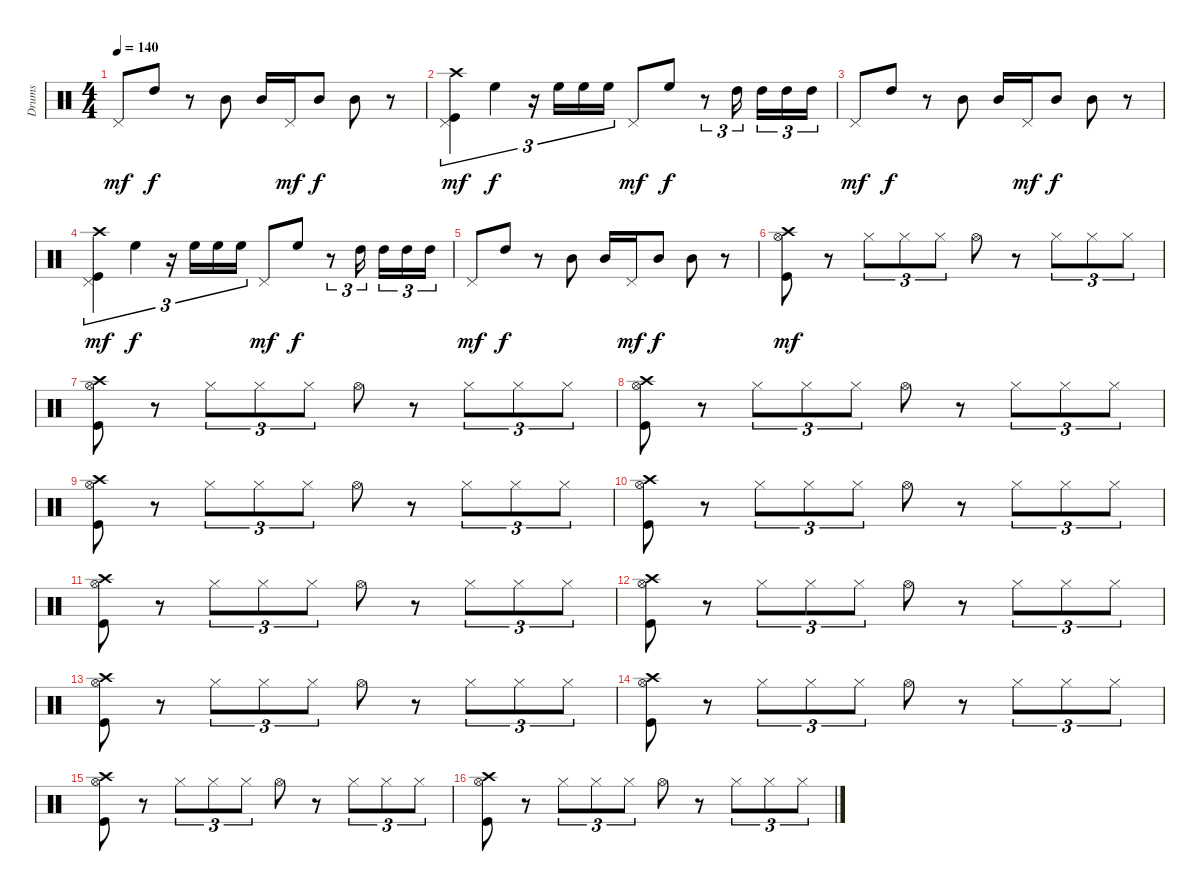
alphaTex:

\track ("Drums" "Drums") {instrument percussion}
\staff {score}
\articulation defaults
\ts (4 4)
\tempo 140
\clef neutral
\ks c "Pedal Hi-Hat (hit)".8{dy mf} "High Tom (hit)".8{dy f}
r.8 "Mid Tom (hit)".8 "Mid Tom (hit)".16 "Pedal Hi-Hat (hit)".16{dy mf} "Mid Tom (hit)".8{dy f} "Mid Tom (hit)".8 r.8 |
("Kick (hit)" "Pedal Hi-Hat (hit)" "Crash high (hit)").4{tu (3 2) dy mf} "High Floor Tom (hit)".4{tu (3 2) dy f} r.16{tu (3 2)} "High Floor Tom (hit)".16{tu (3 2)} "High Floor Tom (hit)".16{tu (3 2)} "High Floor Tom (hit)".16{tu (3 2)} "Pedal Hi-Hat (hit)".8{dy mf} "High Floor Tom (hit)".8{dy f} r.8{tu (3 2)} "High Tom (hit)".16{tu (3 2)} "High Tom (hit)".16{tu (3 2)} "High Tom (hit)".16{tu (3 2)} "High Tom (hit)".16{tu (3 2)} |
"Pedal Hi-Hat (hit)".8{dy mf} "High Tom (hit)".8{dy f} r.8 "Mid Tom (hit)".8 "Mid Tom (hit)".16 "Pedal Hi-Hat (hit)".16{dy mf} "Mid Tom (hit)".8{dy f} "Mid Tom (hit)".8 r.8 |
("Kick (hit)" "Pedal Hi-Hat (hit)" "Crash high (hit)").4{tu (3 2) dy mf} "High Floor Tom (hit)".4{tu (3 2) dy f} r.16{tu (3 2)} "High Floor Tom (hit)".16{tu (3 2)} "High Floor Tom (hit)".16{tu (3 2)} "High Floor Tom (hit)".16{tu (3 2)} "Pedal Hi-Hat (hit)".8{dy mf} "High Floor Tom (hit)".8{dy f} r.8{tu (3 2)} "High Tom (hit)".16{tu (3 2)} "High Tom (hit)".16{tu (3 2)} "High Tom (hit)".16{tu (3 2)} "High Tom (hit)".16{tu (3 2)} |
"Pedal Hi-Hat (hit)".8{dy mf} "High Tom (hit)".8{dy f} r.8 "Mid Tom (hit)".8 "Mid Tom (hit)".16 "Pedal Hi-Hat (hit)".16{dy mf} "Mid Tom (hit)".8{dy f} "Mid Tom (hit)".8 r.8 |
("Kick (hit)" "Hi-Hat (open)" "Crash high (hit)").8{dy mf} r.8 "Hi-Hat (closed)".8{tu (3 2)} "Hi-Hat (closed)".8{tu (3 2)} "Hi-Hat (closed)".8{tu (3 2)} "Hi-Hat (open)".8 r.8 "Hi-Hat (closed)".8{tu (3 2)} "Hi-Hat (closed)".8{tu (3 2)} "Hi-Hat (closed)".8{tu (3 2)} |
("Kick (hit)" "Hi-Hat (open)" "Crash high (hit)").8 r.8 "Hi-Hat (closed)".8{tu (3 2)} "Hi-Hat (closed)".8{tu (3 2)} "Hi-Hat (closed)".8{tu (3 2)} "Hi-Hat (open)".8 r.8 "Hi-Hat (closed)".8{tu (3 2)} "Hi-Hat (closed)".8{tu (3 2)} "Hi-Hat (closed)".8{tu (3 2)} |
("Kick (hit)" "Hi-Hat (open)" "Crash high (hit)").8 r.8 "Hi-Hat (closed)".8{tu (3 2)} "Hi-Hat (closed)".8{tu (3 2)} "Hi-Hat (closed)".8{tu (3 2)} "Hi-Hat (open)".8 r.8 "Hi-Hat (closed)".8{tu (3 2)} "Hi-Hat (closed)".8{tu (3 2)} "Hi-Hat (closed)".8{tu (3 2)} |
("Kick (hit)" "Hi-Hat (open)" "Crash high (hit)").8 r.8 "Hi-Hat (closed)".8{tu (3 2)} "Hi-Hat (closed)".8{tu (3 2)} "Hi-Hat (closed)".8{tu (3 2)} "Hi-Hat (open)".8 r.8 "Hi-Hat (closed)".8{tu (3 2)} "Hi-Hat (closed)".8{tu (3 2)} "Hi-Hat (closed)".8{tu (3 2)} |
("Kick (hit)" "Hi-Hat (open)" "Crash high (hit)").8 r.8 "Hi-Hat (closed)".8{tu (3 2)} "Hi-Hat (closed)".8{tu (3 2)} "Hi-Hat (closed)".8{tu (3 2)} "Hi-Hat (open)".8 r.8 "Hi-Hat (closed)".8{tu (3 2)} "Hi-Hat (closed)".8{tu (3 2)} "Hi-Hat (closed)".8{tu (3 2)} |
("Kick (hit)" "Hi-Hat (open)" "Crash high (hit)").8 r.8 "Hi-Hat (closed)".8{tu (3 2)} "Hi-Hat (closed)".8{tu (3 2)} "Hi-Hat (closed)".8{tu (3 2)} "Hi-Hat (open)".8 r.8 "Hi-Hat (closed)".8{tu (3 2)} "Hi-Hat (closed)".8{tu (3 2)} "Hi-Hat (closed)".8{tu (3 2)} |
("Kick (hit)" "Hi-Hat (open)" "Crash high (hit)").8 r.8 "Hi-Hat (closed)".8{tu (3 2)} "Hi-Hat (closed)".8{tu (3 2)} "Hi-Hat (closed)".8{tu (3 2)} "Hi-Hat (open)".8 r.8 "Hi-Hat (closed)".8{tu (3 2)} "Hi-Hat (closed)".8{tu (3 2)} "Hi-Hat (closed)".8{tu (3 2)} |
("Kick (hit)" "Hi-Hat (open)" "Crash high (hit)").8 r.8 "Hi-Hat (closed)".8{tu (3 2)} "Hi-Hat (closed)".8{tu (3 2)} "Hi-Hat (closed)".8{tu (3 2)} "Hi-Hat (open)".8 r.8 "Hi-Hat (closed)".8{tu (3 2)} "Hi-Hat (closed)".8{tu (3 2)} "Hi-Hat (closed)".8{tu (3 2)} |
("Kick (hit)" "Hi-Hat (open)" "Crash high (hit)").8 r.8 "Hi-Hat (closed)".8{tu (3 2)} "Hi-Hat (closed)".8{tu (3 2)} "Hi-Hat (closed)".8{tu (3 2)} "Hi-Hat (open)".8 r.8 "Hi-Hat (closed)".8{tu (3 2)} "Hi-Hat (closed)".8{tu (3 2)} "Hi-Hat (closed)".8{tu (3 2)} |
("Kick (hit)" "Hi-Hat (open)" "Crash high (hit)").8 r.8 "Hi-Hat (closed)".8{tu (3 2)} "Hi-Hat (closed)".8{tu (3 2)} "Hi-Hat (closed)".8{tu (3 2)} "Hi-Hat (open)".8 r.8 "Hi-Hat (closed)".8{tu (3 2)} "Hi-Hat (closed)".8{tu (3 2)} "Hi-Hat (closed)".8{tu (3 2)} |
("Kick (hit)" "Hi-Hat (open)" "Crash high (hit)").8 r.8 "Hi-Hat (closed)".8{tu (3 2)} "Hi-Hat (closed)".8{tu (3 2)} "Hi-Hat (closed)".8{tu (3 2)} "Hi-Hat (open)".8 r.8 "Hi-Hat (closed)".8{tu (3 2)} "Hi-Hat (closed)".8{tu (3 2)} "Hi-Hat (closed)".8{tu (3 2)}
